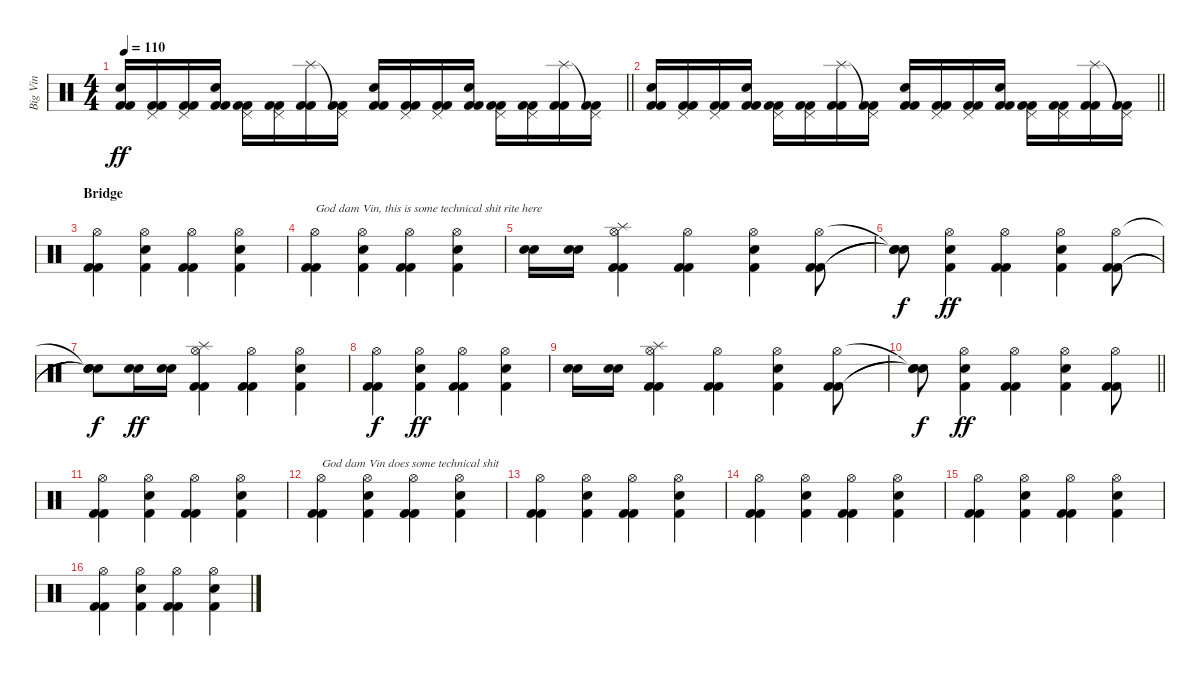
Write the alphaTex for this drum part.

\track ("Big Vin" "Big Vin") {instrument percussion}
\staff {score}
\articulation defaults
\ts (4 4)
\tempo 110
\clef neutral
\barLineRight lightlight
\ks c
("Snare (hit) 2" "Kick (hit) 2" "Kick (hit) 2").16{dy ff} ("Pedal Hi-Hat (hit)" "Kick (hit) 2" "Kick (hit) 2").16 ("Pedal Hi-Hat (hit)" "Kick (hit) 2" "Kick (hit) 2").16 ("Snare (hit) 2" "Kick (hit) 2" "Kick (hit) 2").16 ("Pedal Hi-Hat (hit)" "Kick (hit) 2" "Kick (hit) 2").16 ("Pedal Hi-Hat (hit)" "Kick (hit) 2" "Kick (hit) 2").16 ("Splash (hit)" "Kick (hit) 2" "Kick (hit) 2").16 ("Pedal Hi-Hat (hit)"{t} "Kick (hit) 2" "Kick (hit) 2").16 ("Snare (hit) 2" "Kick (hit) 2" "Kick (hit) 2").16 ("Pedal Hi-Hat (hit)" "Kick (hit) 2" "Kick (hit) 2").16 ("Pedal Hi-Hat (hit)" "Kick (hit) 2" "Kick (hit) 2").16 ("Snare (hit) 2" "Kick (hit) 2" "Kick (hit) 2").16 ("Pedal Hi-Hat (hit)" "Kick (hit) 2" "Kick (hit) 2").16 ("Pedal Hi-Hat (hit)" "Kick (hit) 2" "Kick (hit) 2").16 ("Splash (hit)" "Kick (hit) 2" "Kick (hit) 2").16 ("Pedal Hi-Hat (hit)"{t} "Kick (hit) 2" "Kick (hit) 2").16 |
\barLineRight lightlight
("Snare (hit) 2" "Kick (hit) 2" "Kick (hit) 2").16 ("Pedal Hi-Hat (hit)" "Kick (hit) 2" "Kick (hit) 2").16 ("Pedal Hi-Hat (hit)" "Kick (hit) 2" "Kick (hit) 2").16 ("Snare (hit) 2" "Kick (hit) 2" "Kick (hit) 2").16 ("Pedal Hi-Hat (hit)" "Kick (hit) 2" "Kick (hit) 2").16 ("Pedal Hi-Hat (hit)" "Kick (hit) 2" "Kick (hit) 2").16 ("Splash (hit)" "Kick (hit) 2" "Kick (hit) 2").16 ("Pedal Hi-Hat (hit)"{t} "Kick (hit) 2" "Kick (hit) 2").16 ("Snare (hit) 2" "Kick (hit) 2" "Kick (hit) 2").16 ("Pedal Hi-Hat (hit)" "Kick (hit) 2" "Kick (hit) 2").16 ("Pedal Hi-Hat (hit)" "Kick (hit) 2" "Kick (hit) 2").16 ("Snare (hit) 2" "Kick (hit) 2" "Kick (hit) 2").16 ("Pedal Hi-Hat (hit)" "Kick (hit) 2" "Kick (hit) 2").16 ("Pedal Hi-Hat (hit)" "Kick (hit) 2" "Kick (hit) 2").16 ("Splash (hit)" "Kick (hit) 2" "Kick (hit) 2").16 ("Pedal Hi-Hat (hit)"{t} "Kick (hit) 2" "Kick (hit) 2").16 |
\section ("" "Bridge")
("Hi-Hat (open)" "Kick (hit) 2" "Kick (hit) 2").4 ("Hi-Hat (open)" "Snare (hit) 2" "Kick (hit) 2").4 ("Hi-Hat (open)" "Kick (hit) 2" "Kick (hit) 2").4 ("Hi-Hat (open)" "Snare (hit) 2" "Kick (hit) 2").4 |
("Hi-Hat (open)" "Kick (hit) 2" "Kick (hit) 2").4{txt "God dam Vin, this is some technical shit rite here"} ("Hi-Hat (open)" "Snare (hit) 2" "Kick (hit) 2").4 ("Hi-Hat (open)" "Kick (hit) 2" "Kick (hit) 2").4 ("Hi-Hat (open)" "Snare (hit) 2" "Kick (hit) 2").4 |
("Snare (hit) 2" "Snare (hit) 2").16 ("Snare (hit) 2" "Snare (hit) 2").16 ("Splash (hit)" "Hi-Hat (open)" "Kick (hit) 2" "Kick (hit) 2").4 ("Hi-Hat (open)" "Kick (hit) 2" "Kick (hit) 2").4 ("Hi-Hat (open)" "Snare (hit) 2" "Kick (hit) 2").4 ("Hi-Hat (open)" "Kick (hit) 2" "Kick (hit) 2").8 |
("Snare (hit)"{t} "Snare (hit)"{t} "Snare (hit)"{t}).8{dy f} ("Hi-Hat (open)" "Snare (hit) 2" "Kick (hit) 2").4{dy ff} ("Hi-Hat (open)" "Kick (hit) 2" "Kick (hit) 2").4 ("Hi-Hat (open)" "Snare (hit) 2" "Kick (hit) 2").4 ("Hi-Hat (open)" "Kick (hit) 2" "Kick (hit) 2").8 |
("Snare (hit)"{t} "Snare (hit)"{t} "Snare (hit)"{t}).8{dy f} ("Snare (hit) 2" "Snare (hit) 2").16{dy ff} ("Snare (hit) 2" "Snare (hit) 2").16 ("Splash (hit)" "Hi-Hat (open)" "Kick (hit) 2" "Kick (hit) 2").4 ("Hi-Hat (open)" "Kick (hit) 2" "Kick (hit) 2").4 ("Hi-Hat (open)" "Snare (hit) 2" "Kick (hit) 2").4 |
("Hi-Hat (open)" "Kick (hit) 2" "Kick (hit) 2").4{dy f} ("Hi-Hat (open)" "Snare (hit) 2" "Kick (hit) 2").4{dy ff} ("Hi-Hat (open)" "Kick (hit) 2" "Kick (hit) 2").4 ("Hi-Hat (open)" "Snare (hit) 2" "Kick (hit) 2").4 |
("Snare (hit) 2" "Snare (hit) 2").16 ("Snare (hit) 2" "Snare (hit) 2").16 ("Splash (hit)" "Hi-Hat (open)" "Kick (hit) 2" "Kick (hit) 2").4 ("Hi-Hat (open)" "Kick (hit) 2" "Kick (hit) 2").4 ("Hi-Hat (open)" "Snare (hit) 2" "Kick (hit) 2").4 ("Hi-Hat (open)" "Kick (hit) 2" "Kick (hit) 2").8 |
\barLineRight lightlight
("Snare (hit)"{t} "Snare (hit)"{t} "Snare (hit)"{t}).8{dy f} ("Hi-Hat (open)" "Snare (hit) 2" "Kick (hit) 2").4{dy ff} ("Hi-Hat (open)" "Kick (hit) 2" "Kick (hit) 2").4 ("Hi-Hat (open)" "Snare (hit) 2" "Kick (hit) 2").4 ("Hi-Hat (open)" "Kick (hit) 2" "Kick (hit) 2").8 |
("Hi-Hat (open)" "Kick (hit) 2" "Kick (hit) 2").4 ("Hi-Hat (open)" "Snare (hit) 2" "Kick (hit) 2").4 ("Hi-Hat (open)" "Kick (hit) 2" "Kick (hit) 2").4 ("Hi-Hat (open)" "Snare (hit) 2" "Kick (hit) 2").4 |
("Hi-Hat (open)" "Kick (hit) 2" "Kick (hit) 2").4{txt "God dam Vin does some technical shit"} ("Hi-Hat (open)" "Snare (hit) 2" "Kick (hit) 2").4 ("Hi-Hat (open)" "Kick (hit) 2" "Kick (hit) 2").4 ("Hi-Hat (open)" "Snare (hit) 2" "Kick (hit) 2").4 |
("Hi-Hat (open)" "Kick (hit) 2" "Kick (hit) 2").4 ("Hi-Hat (open)" "Snare (hit) 2" "Kick (hit) 2").4 ("Hi-Hat (open)" "Kick (hit) 2" "Kick (hit) 2").4 ("Hi-Hat (open)" "Snare (hit) 2" "Kick (hit) 2").4 |
("Hi-Hat (open)" "Kick (hit) 2" "Kick (hit) 2").4 ("Hi-Hat (open)" "Snare (hit) 2" "Kick (hit) 2").4 ("Hi-Hat (open)" "Kick (hit) 2" "Kick (hit) 2").4 ("Hi-Hat (open)" "Snare (hit) 2" "Kick (hit) 2").4 |
("Hi-Hat (open)" "Kick (hit) 2" "Kick (hit) 2").4 ("Hi-Hat (open)" "Snare (hit) 2" "Kick (hit) 2").4 ("Hi-Hat (open)" "Kick (hit) 2" "Kick (hit) 2").4 ("Hi-Hat (open)" "Snare (hit) 2" "Kick (hit) 2").4 |
("Hi-Hat (open)" "Kick (hit) 2" "Kick (hit) 2").4 ("Hi-Hat (open)" "Snare (hit) 2" "Kick (hit) 2").4 ("Hi-Hat (open)" "Kick (hit) 2" "Kick (hit) 2").4 ("Hi-Hat (open)" "Snare (hit) 2" "Kick (hit) 2").4
